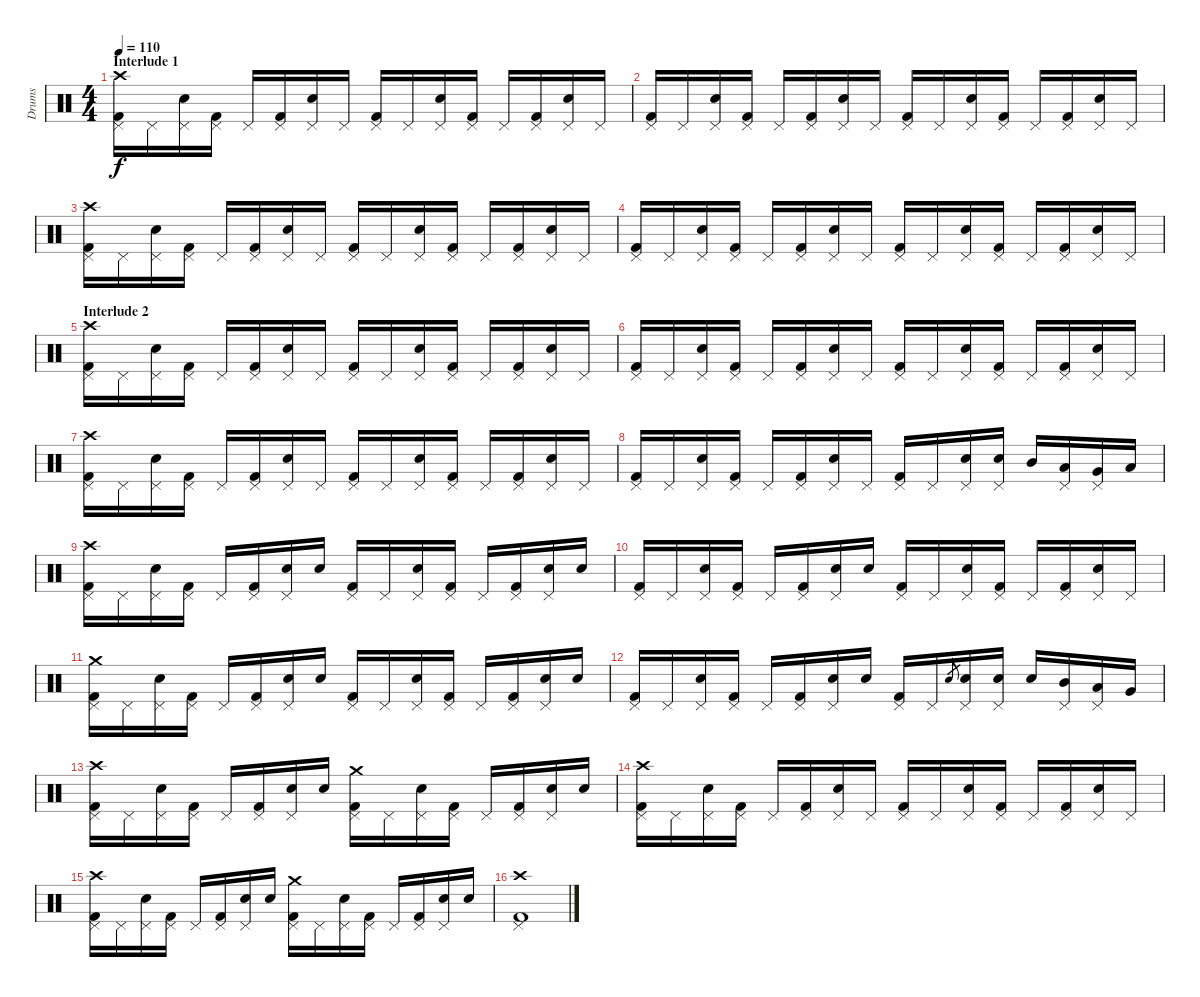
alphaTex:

\track ("Drums" "Drums") {instrument percussion}
\staff {score}
\articulation defaults
\ts (4 4)
\section ("" "Interlude 1")
\tempo 110
\clef neutral
\ks c
("Kick (hit) 2" "Pedal Hi-Hat (hit)" "Crash high (hit)").16{dy f} "Pedal Hi-Hat (hit)".16 ("Snare (hit) 2" "Pedal Hi-Hat (hit)").16 ("Kick (hit) 2" "Pedal Hi-Hat (hit)").16 "Pedal Hi-Hat (hit)".16 ("Kick (hit) 2" "Pedal Hi-Hat (hit)").16 ("Snare (hit) 2" "Pedal Hi-Hat (hit)").16 "Pedal Hi-Hat (hit)".16 ("Kick (hit) 2" "Pedal Hi-Hat (hit)").16 "Pedal Hi-Hat (hit)".16 ("Snare (hit) 2" "Pedal Hi-Hat (hit)").16 ("Kick (hit) 2" "Pedal Hi-Hat (hit)").16 "Pedal Hi-Hat (hit)".16 ("Kick (hit) 2" "Pedal Hi-Hat (hit)").16 ("Snare (hit) 2" "Pedal Hi-Hat (hit)").16 "Pedal Hi-Hat (hit)".16 |
("Kick (hit) 2" "Pedal Hi-Hat (hit)").16 "Pedal Hi-Hat (hit)".16 ("Snare (hit) 2" "Pedal Hi-Hat (hit)").16 ("Kick (hit) 2" "Pedal Hi-Hat (hit)").16 "Pedal Hi-Hat (hit)".16 ("Kick (hit) 2" "Pedal Hi-Hat (hit)").16 ("Snare (hit) 2" "Pedal Hi-Hat (hit)").16 "Pedal Hi-Hat (hit)".16 ("Kick (hit) 2" "Pedal Hi-Hat (hit)").16 "Pedal Hi-Hat (hit)".16 ("Snare (hit) 2" "Pedal Hi-Hat (hit)").16 ("Kick (hit) 2" "Pedal Hi-Hat (hit)").16 "Pedal Hi-Hat (hit)".16 ("Kick (hit) 2" "Pedal Hi-Hat (hit)").16 ("Snare (hit) 2" "Pedal Hi-Hat (hit)").16 "Pedal Hi-Hat (hit)".16 |
("Kick (hit) 2" "Pedal Hi-Hat (hit)" "Crash high (hit)").16 "Pedal Hi-Hat (hit)".16 ("Snare (hit) 2" "Pedal Hi-Hat (hit)").16 ("Kick (hit) 2" "Pedal Hi-Hat (hit)").16 "Pedal Hi-Hat (hit)".16 ("Kick (hit) 2" "Pedal Hi-Hat (hit)").16 ("Snare (hit) 2" "Pedal Hi-Hat (hit)").16 "Pedal Hi-Hat (hit)".16 ("Kick (hit) 2" "Pedal Hi-Hat (hit)").16 "Pedal Hi-Hat (hit)".16 ("Snare (hit) 2" "Pedal Hi-Hat (hit)").16 ("Kick (hit) 2" "Pedal Hi-Hat (hit)").16 "Pedal Hi-Hat (hit)".16 ("Kick (hit) 2" "Pedal Hi-Hat (hit)").16 ("Snare (hit) 2" "Pedal Hi-Hat (hit)").16 "Pedal Hi-Hat (hit)".16 |
("Kick (hit) 2" "Pedal Hi-Hat (hit)").16 "Pedal Hi-Hat (hit)".16 ("Snare (hit) 2" "Pedal Hi-Hat (hit)").16 ("Kick (hit) 2" "Pedal Hi-Hat (hit)").16 "Pedal Hi-Hat (hit)".16 ("Kick (hit) 2" "Pedal Hi-Hat (hit)").16 ("Snare (hit) 2" "Pedal Hi-Hat (hit)").16 "Pedal Hi-Hat (hit)".16 ("Kick (hit) 2" "Pedal Hi-Hat (hit)").16 "Pedal Hi-Hat (hit)".16 ("Snare (hit) 2" "Pedal Hi-Hat (hit)").16 ("Kick (hit) 2" "Pedal Hi-Hat (hit)").16 "Pedal Hi-Hat (hit)".16 ("Kick (hit) 2" "Pedal Hi-Hat (hit)").16 ("Snare (hit) 2" "Pedal Hi-Hat (hit)").16 "Pedal Hi-Hat (hit)".16 |
\section ("" "Interlude 2")
("Kick (hit) 2" "Pedal Hi-Hat (hit)" "Crash high (hit)").16 "Pedal Hi-Hat (hit)".16 ("Snare (hit) 2" "Pedal Hi-Hat (hit)").16 ("Kick (hit) 2" "Pedal Hi-Hat (hit)").16 "Pedal Hi-Hat (hit)".16 ("Kick (hit) 2" "Pedal Hi-Hat (hit)").16 ("Snare (hit) 2" "Pedal Hi-Hat (hit)").16 "Pedal Hi-Hat (hit)".16 ("Kick (hit) 2" "Pedal Hi-Hat (hit)").16 "Pedal Hi-Hat (hit)".16 ("Snare (hit) 2" "Pedal Hi-Hat (hit)").16 ("Kick (hit) 2" "Pedal Hi-Hat (hit)").16 "Pedal Hi-Hat (hit)".16 ("Kick (hit) 2" "Pedal Hi-Hat (hit)").16 ("Snare (hit) 2" "Pedal Hi-Hat (hit)").16 "Pedal Hi-Hat (hit)".16 |
("Kick (hit) 2" "Pedal Hi-Hat (hit)").16 "Pedal Hi-Hat (hit)".16 ("Snare (hit) 2" "Pedal Hi-Hat (hit)").16 ("Kick (hit) 2" "Pedal Hi-Hat (hit)").16 "Pedal Hi-Hat (hit)".16 ("Kick (hit) 2" "Pedal Hi-Hat (hit)").16 ("Snare (hit) 2" "Pedal Hi-Hat (hit)").16 "Pedal Hi-Hat (hit)".16 ("Kick (hit) 2" "Pedal Hi-Hat (hit)").16 "Pedal Hi-Hat (hit)".16 ("Snare (hit) 2" "Pedal Hi-Hat (hit)").16 ("Kick (hit) 2" "Pedal Hi-Hat (hit)").16 "Pedal Hi-Hat (hit)".16 ("Kick (hit) 2" "Pedal Hi-Hat (hit)").16 ("Snare (hit) 2" "Pedal Hi-Hat (hit)").16 "Pedal Hi-Hat (hit)".16 |
("Kick (hit) 2" "Pedal Hi-Hat (hit)" "Crash high (hit)").16 "Pedal Hi-Hat (hit)".16 ("Snare (hit) 2" "Pedal Hi-Hat (hit)").16 ("Kick (hit) 2" "Pedal Hi-Hat (hit)").16 "Pedal Hi-Hat (hit)".16 ("Kick (hit) 2" "Pedal Hi-Hat (hit)").16 ("Snare (hit) 2" "Pedal Hi-Hat (hit)").16 "Pedal Hi-Hat (hit)".16 ("Kick (hit) 2" "Pedal Hi-Hat (hit)").16 "Pedal Hi-Hat (hit)".16 ("Snare (hit) 2" "Pedal Hi-Hat (hit)").16 ("Kick (hit) 2" "Pedal Hi-Hat (hit)").16 "Pedal Hi-Hat (hit)".16 ("Kick (hit) 2" "Pedal Hi-Hat (hit)").16 ("Snare (hit) 2" "Pedal Hi-Hat (hit)").16 "Pedal Hi-Hat (hit)".16 |
("Kick (hit) 2" "Pedal Hi-Hat (hit)").16 "Pedal Hi-Hat (hit)".16 ("Snare (hit) 2" "Pedal Hi-Hat (hit)").16 ("Kick (hit) 2" "Pedal Hi-Hat (hit)").16 "Pedal Hi-Hat (hit)".16 ("Kick (hit) 2" "Pedal Hi-Hat (hit)").16 ("Snare (hit) 2" "Pedal Hi-Hat (hit)").16 "Pedal Hi-Hat (hit)".16 ("Kick (hit) 2" "Pedal Hi-Hat (hit)").16 "Pedal Hi-Hat (hit)".16 ("Snare (hit) 2" "Pedal Hi-Hat (hit)").16 ("Snare (hit) 2" "Pedal Hi-Hat (hit)").16 "Mid Tom (hit)".16 ("Low Tom (hit)" "Pedal Hi-Hat (hit)").16 ("Very Low Tom (hit)" "Pedal Hi-Hat (hit)").16 "Low Floor Tom (hit)".16 |
("Kick (hit) 2" "Pedal Hi-Hat (hit)" "Crash high (hit)").16 "Pedal Hi-Hat (hit)".16 ("Snare (hit) 2" "Pedal Hi-Hat (hit)").16 ("Kick (hit) 2" "Pedal Hi-Hat (hit)").16 "Pedal Hi-Hat (hit)".16 ("Kick (hit) 2" "Pedal Hi-Hat (hit)").16 ("Snare (hit) 2" "Pedal Hi-Hat (hit)").16 "Snare (hit) 2".16 ("Kick (hit) 2" "Pedal Hi-Hat (hit)").16 "Pedal Hi-Hat (hit)".16 ("Snare (hit) 2" "Pedal Hi-Hat (hit)").16 ("Kick (hit) 2" "Pedal Hi-Hat (hit)").16 "Pedal Hi-Hat (hit)".16 ("Kick (hit) 2" "Pedal Hi-Hat (hit)").16 ("Snare (hit) 2" "Pedal Hi-Hat (hit)").16 "Snare (hit) 2".16 |
("Kick (hit) 2" "Pedal Hi-Hat (hit)").16 "Pedal Hi-Hat (hit)".16 ("Snare (hit) 2" "Pedal Hi-Hat (hit)").16 ("Kick (hit) 2" "Pedal Hi-Hat (hit)").16 "Pedal Hi-Hat (hit)".16 ("Kick (hit) 2" "Pedal Hi-Hat (hit)").16 ("Snare (hit) 2" "Pedal Hi-Hat (hit)").16 "Snare (hit) 2".16 ("Kick (hit) 2" "Pedal Hi-Hat (hit)").16 "Pedal Hi-Hat (hit)".16 ("Snare (hit) 2" "Pedal Hi-Hat (hit)").16 ("Kick (hit) 2" "Pedal Hi-Hat (hit)").16 "Pedal Hi-Hat (hit)".16 ("Kick (hit) 2" "Pedal Hi-Hat (hit)").16 ("Snare (hit) 2" "Pedal Hi-Hat (hit)").16 "Pedal Hi-Hat (hit)".16 |
("Kick (hit) 2" "Pedal Hi-Hat (hit)" "Crash medium (hit)").16 "Pedal Hi-Hat (hit)".16 ("Snare (hit) 2" "Pedal Hi-Hat (hit)").16 ("Kick (hit) 2" "Pedal Hi-Hat (hit)").16 "Pedal Hi-Hat (hit)".16 ("Kick (hit) 2" "Pedal Hi-Hat (hit)").16 ("Snare (hit) 2" "Pedal Hi-Hat (hit)").16 "Snare (hit) 2".16 ("Kick (hit) 2" "Pedal Hi-Hat (hit)").16 "Pedal Hi-Hat (hit)".16 ("Snare (hit) 2" "Pedal Hi-Hat (hit)").16 ("Kick (hit) 2" "Pedal Hi-Hat (hit)").16 "Pedal Hi-Hat (hit)".16 ("Kick (hit) 2" "Pedal Hi-Hat (hit)").16 ("Snare (hit) 2" "Pedal Hi-Hat (hit)").16 "Snare (hit) 2".16 |
("Kick (hit) 2" "Pedal Hi-Hat (hit)").16 "Pedal Hi-Hat (hit)".16 ("Snare (hit) 2" "Pedal Hi-Hat (hit)").16 ("Kick (hit) 2" "Pedal Hi-Hat (hit)").16 "Pedal Hi-Hat (hit)".16 ("Kick (hit) 2" "Pedal Hi-Hat (hit)").16 ("Snare (hit) 2" "Pedal Hi-Hat (hit)").16 "Snare (hit) 2".16 ("Kick (hit) 2" "Pedal Hi-Hat (hit)").16 "Pedal Hi-Hat (hit)".16 "Snare (hit) 2".8{gr} ("Snare (hit) 2" "Pedal Hi-Hat (hit)").16 ("Snare (hit) 2" "Pedal Hi-Hat (hit)").16 "Snare (hit) 2".16 ("Mid Tom (hit)" "Pedal Hi-Hat (hit)").16 ("Low Tom (hit)" "Pedal Hi-Hat (hit)").16 "Very Low Tom (hit)".16 |
("Kick (hit) 2" "Pedal Hi-Hat (hit)" "Crash high (hit)").16 "Pedal Hi-Hat (hit)".16 ("Snare (hit) 2" "Pedal Hi-Hat (hit)").16 ("Kick (hit) 2" "Pedal Hi-Hat (hit)").16 "Pedal Hi-Hat (hit)".16 ("Kick (hit) 2" "Pedal Hi-Hat (hit)").16 ("Snare (hit) 2" "Pedal Hi-Hat (hit)").16 "Snare (hit) 2".16 ("Kick (hit) 2" "Pedal Hi-Hat (hit)" "Crash medium (hit)").16 "Pedal Hi-Hat (hit)".16 ("Snare (hit) 2" "Pedal Hi-Hat (hit)").16 ("Kick (hit) 2" "Pedal Hi-Hat (hit)").16 "Pedal Hi-Hat (hit)".16 ("Kick (hit) 2" "Pedal Hi-Hat (hit)").16 ("Snare (hit) 2" "Pedal Hi-Hat (hit)").16 "Snare (hit) 2".16 |
("Kick (hit) 2" "Pedal Hi-Hat (hit)" "Crash high (hit)").16 "Pedal Hi-Hat (hit)".16 ("Snare (hit) 2" "Pedal Hi-Hat (hit)").16 ("Kick (hit) 2" "Pedal Hi-Hat (hit)").16 "Pedal Hi-Hat (hit)".16 ("Kick (hit) 2" "Pedal Hi-Hat (hit)").16 ("Snare (hit) 2" "Pedal Hi-Hat (hit)").16 "Pedal Hi-Hat (hit)".16 ("Kick (hit) 2" "Pedal Hi-Hat (hit)").16 "Pedal Hi-Hat (hit)".16 ("Snare (hit) 2" "Pedal Hi-Hat (hit)").16 ("Kick (hit) 2" "Pedal Hi-Hat (hit)").16 "Pedal Hi-Hat (hit)".16 ("Kick (hit) 2" "Pedal Hi-Hat (hit)").16 ("Snare (hit) 2" "Pedal Hi-Hat (hit)").16 "Pedal Hi-Hat (hit)".16 |
("Kick (hit) 2" "Pedal Hi-Hat (hit)" "Crash high (hit)").16 "Pedal Hi-Hat (hit)".16 ("Snare (hit) 2" "Pedal Hi-Hat (hit)").16 ("Kick (hit) 2" "Pedal Hi-Hat (hit)").16 "Pedal Hi-Hat (hit)".16 ("Kick (hit) 2" "Pedal Hi-Hat (hit)").16 ("Snare (hit) 2" "Pedal Hi-Hat (hit)").16 "Snare (hit) 2".16 ("Kick (hit) 2" "Pedal Hi-Hat (hit)" "Crash medium (hit)").16 "Pedal Hi-Hat (hit)".16 ("Snare (hit) 2" "Pedal Hi-Hat (hit)").16 ("Kick (hit) 2" "Pedal Hi-Hat (hit)").16 "Pedal Hi-Hat (hit)".16 ("Kick (hit) 2" "Pedal Hi-Hat (hit)").16 ("Snare (hit) 2" "Pedal Hi-Hat (hit)").16 "Snare (hit) 2".16 |
("Kick (hit) 2" "Pedal Hi-Hat (hit)" "Crash high (hit)").1
